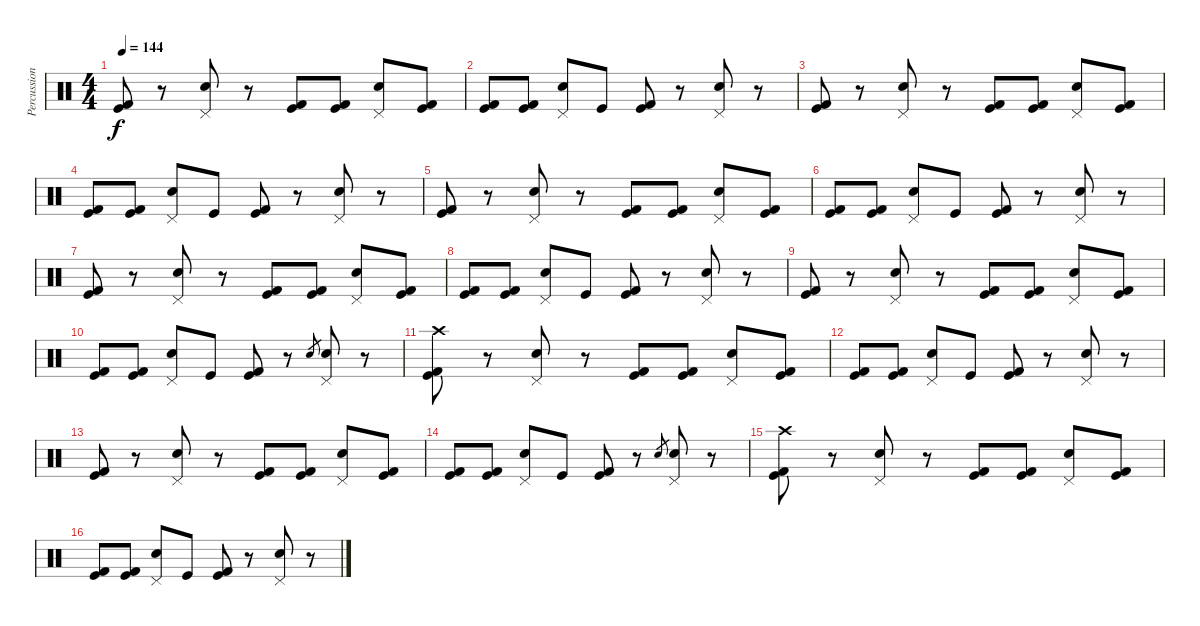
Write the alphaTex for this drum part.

\track ("Percussions" "Percussion") {instrument percussion}
\staff {score}
\articulation defaults
\ts (4 4)
\tempo 144
\clef neutral
\ks c
("Kick (hit)" "Kick (hit) 2").8{dy f} r.8 ("Pedal Hi-Hat (hit)" "Snare (hit) 2").8 r.8 ("Kick (hit)" "Kick (hit) 2").8 ("Kick (hit)" "Kick (hit) 2").8 ("Pedal Hi-Hat (hit)" "Snare (hit) 2").8 ("Kick (hit)" "Kick (hit) 2").8 |
("Kick (hit)" "Kick (hit) 2").8 ("Kick (hit)" "Kick (hit) 2").8 ("Pedal Hi-Hat (hit)" "Snare (hit) 2").8 "Kick (hit)".8 ("Kick (hit)" "Kick (hit) 2").8 r.8 ("Pedal Hi-Hat (hit)" "Snare (hit) 2").8 r.8 |
("Kick (hit)" "Kick (hit) 2").8 r.8 ("Pedal Hi-Hat (hit)" "Snare (hit) 2").8 r.8 ("Kick (hit)" "Kick (hit) 2").8 ("Kick (hit)" "Kick (hit) 2").8 ("Pedal Hi-Hat (hit)" "Snare (hit) 2").8 ("Kick (hit)" "Kick (hit) 2").8 |
("Kick (hit)" "Kick (hit) 2").8 ("Kick (hit)" "Kick (hit) 2").8 ("Pedal Hi-Hat (hit)" "Snare (hit) 2").8 "Kick (hit)".8 ("Kick (hit)" "Kick (hit) 2").8 r.8 ("Pedal Hi-Hat (hit)" "Snare (hit) 2").8 r.8 |
("Kick (hit)" "Kick (hit) 2").8 r.8 ("Pedal Hi-Hat (hit)" "Snare (hit) 2").8 r.8 ("Kick (hit)" "Kick (hit) 2").8 ("Kick (hit)" "Kick (hit) 2").8 ("Pedal Hi-Hat (hit)" "Snare (hit) 2").8 ("Kick (hit)" "Kick (hit) 2").8 |
("Kick (hit)" "Kick (hit) 2").8 ("Kick (hit)" "Kick (hit) 2").8 ("Pedal Hi-Hat (hit)" "Snare (hit) 2").8 "Kick (hit)".8 ("Kick (hit)" "Kick (hit) 2").8 r.8 ("Pedal Hi-Hat (hit)" "Snare (hit) 2").8 r.8 |
("Kick (hit)" "Kick (hit) 2").8 r.8 ("Pedal Hi-Hat (hit)" "Snare (hit) 2").8 r.8 ("Kick (hit)" "Kick (hit) 2").8 ("Kick (hit)" "Kick (hit) 2").8 ("Pedal Hi-Hat (hit)" "Snare (hit) 2").8 ("Kick (hit)" "Kick (hit) 2").8 |
("Kick (hit)" "Kick (hit) 2").8 ("Kick (hit)" "Kick (hit) 2").8 ("Pedal Hi-Hat (hit)" "Snare (hit) 2").8 "Kick (hit)".8 ("Kick (hit)" "Kick (hit) 2").8 r.8 ("Pedal Hi-Hat (hit)" "Snare (hit) 2").8 r.8 |
("Kick (hit)" "Kick (hit) 2").8 r.8 ("Pedal Hi-Hat (hit)" "Snare (hit) 2").8 r.8 ("Kick (hit)" "Kick (hit) 2").8 ("Kick (hit)" "Kick (hit) 2").8 ("Pedal Hi-Hat (hit)" "Snare (hit) 2").8 ("Kick (hit)" "Kick (hit) 2").8 |
("Kick (hit)" "Kick (hit) 2").8 ("Kick (hit)" "Kick (hit) 2").8 ("Pedal Hi-Hat (hit)" "Snare (hit) 2").8 "Kick (hit)".8 ("Kick (hit)" "Kick (hit) 2").8 r.8 "Snare (hit) 2".8{gr} ("Pedal Hi-Hat (hit)" "Snare (hit) 2").8 r.8 |
("Crash high (hit)" "Kick (hit)" "Kick (hit) 2").8 r.8 ("Pedal Hi-Hat (hit)" "Snare (hit) 2").8 r.8 ("Kick (hit)" "Kick (hit) 2").8 ("Kick (hit)" "Kick (hit) 2").8 ("Pedal Hi-Hat (hit)" "Snare (hit) 2").8 ("Kick (hit)" "Kick (hit) 2").8 |
("Kick (hit)" "Kick (hit) 2").8 ("Kick (hit)" "Kick (hit) 2").8 ("Pedal Hi-Hat (hit)" "Snare (hit) 2").8 "Kick (hit)".8 ("Kick (hit)" "Kick (hit) 2").8 r.8 ("Pedal Hi-Hat (hit)" "Snare (hit) 2").8 r.8 |
("Kick (hit)" "Kick (hit) 2").8 r.8 ("Pedal Hi-Hat (hit)" "Snare (hit) 2").8 r.8 ("Kick (hit)" "Kick (hit) 2").8 ("Kick (hit)" "Kick (hit) 2").8 ("Pedal Hi-Hat (hit)" "Snare (hit) 2").8 ("Kick (hit)" "Kick (hit) 2").8 |
("Kick (hit)" "Kick (hit) 2").8 ("Kick (hit)" "Kick (hit) 2").8 ("Pedal Hi-Hat (hit)" "Snare (hit) 2").8 "Kick (hit)".8 ("Kick (hit)" "Kick (hit) 2").8 r.8 "Snare (hit) 2".8{gr} ("Pedal Hi-Hat (hit)" "Snare (hit) 2").8 r.8 |
("Crash high (hit)" "Kick (hit)" "Kick (hit) 2").8 r.8 ("Pedal Hi-Hat (hit)" "Snare (hit) 2").8 r.8 ("Kick (hit)" "Kick (hit) 2").8 ("Kick (hit)" "Kick (hit) 2").8 ("Pedal Hi-Hat (hit)" "Snare (hit) 2").8 ("Kick (hit)" "Kick (hit) 2").8 |
("Kick (hit)" "Kick (hit) 2").8 ("Kick (hit)" "Kick (hit) 2").8 ("Pedal Hi-Hat (hit)" "Snare (hit) 2").8 "Kick (hit)".8 ("Kick (hit)" "Kick (hit) 2").8 r.8 ("Pedal Hi-Hat (hit)" "Snare (hit) 2").8 r.8
